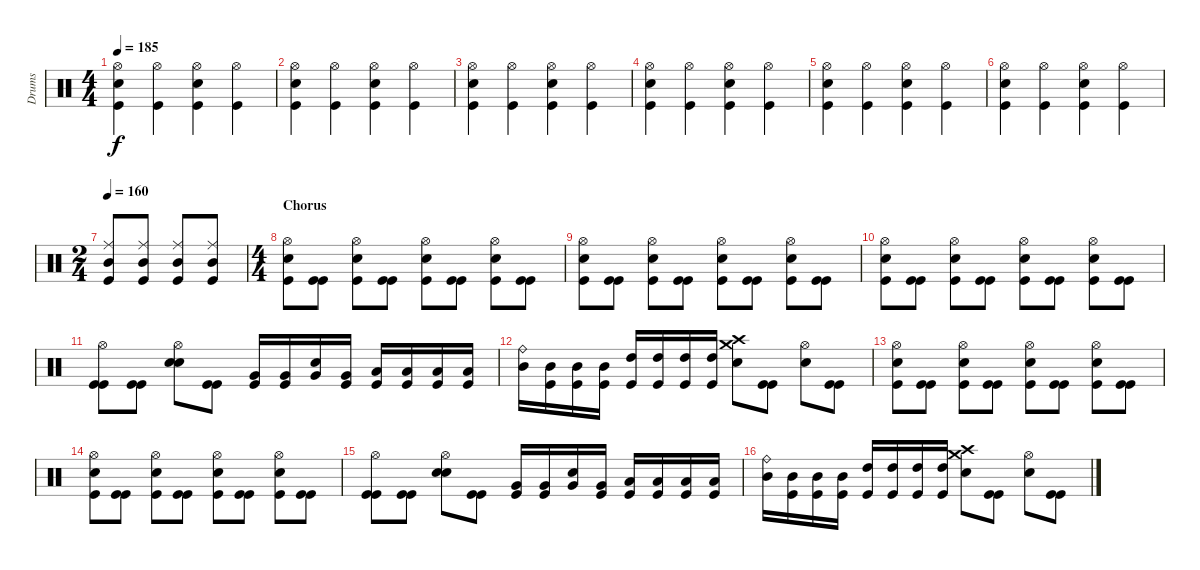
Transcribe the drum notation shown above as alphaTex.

\track ("Drums" "Drums") {instrument percussion}
\staff {score}
\articulation defaults
\ts (4 4)
\tempo 185
\clef neutral
\ks c
("Hi-Hat (open)" "Kick (hit)" "Snare (hit) 2").4{dy f} ("Hi-Hat (open)" "Kick (hit)").4 ("Hi-Hat (open)" "Kick (hit)" "Snare (hit) 2").4 ("Hi-Hat (open)" "Kick (hit)").4 |
("Hi-Hat (open)" "Kick (hit)" "Snare (hit) 2").4 ("Hi-Hat (open)" "Kick (hit)").4 ("Hi-Hat (open)" "Kick (hit)" "Snare (hit) 2").4 ("Hi-Hat (open)" "Kick (hit)").4 |
("Hi-Hat (open)" "Kick (hit)" "Snare (hit) 2").4 ("Hi-Hat (open)" "Kick (hit)").4 ("Hi-Hat (open)" "Kick (hit)" "Snare (hit) 2").4 ("Hi-Hat (open)" "Kick (hit)").4 |
("Hi-Hat (open)" "Kick (hit)" "Snare (hit) 2").4 ("Hi-Hat (open)" "Kick (hit)").4 ("Hi-Hat (open)" "Kick (hit)" "Snare (hit) 2").4 ("Hi-Hat (open)" "Kick (hit)").4 |
("Hi-Hat (open)" "Kick (hit)" "Snare (hit) 2").4 ("Hi-Hat (open)" "Kick (hit)").4 ("Hi-Hat (open)" "Kick (hit)" "Snare (hit) 2").4 ("Hi-Hat (open)" "Kick (hit)").4 |
("Hi-Hat (open)" "Kick (hit)" "Snare (hit) 2").4 ("Hi-Hat (open)" "Kick (hit)").4 ("Hi-Hat (open)" "Kick (hit)" "Snare (hit) 2").4 ("Hi-Hat (open)" "Kick (hit)").4 |
\ts (2 4)
\tempo 160
("Ride (middle)" "Mid Tom (hit)" "Kick (hit)").8 ("Ride (middle)" "Mid Tom (hit)" "Kick (hit)").8 ("Ride (middle)" "Mid Tom (hit)" "Kick (hit)").8 ("Ride (middle)" "Mid Tom (hit)" "Kick (hit)").8 |
\ts (4 4)
\section ("" "Chorus")
("Hi-Hat (open)" "Kick (hit)" "Snare (hit) 2").8 ("Kick (hit)" "Kick (hit)").8 ("Hi-Hat (open)" "Snare (hit) 2" "Kick (hit)").8 ("Kick (hit)" "Kick (hit)").8 ("Hi-Hat (open)" "Kick (hit)" "Snare (hit) 2").8 ("Kick (hit)" "Kick (hit)").8 ("Hi-Hat (open)" "Snare (hit) 2" "Kick (hit)").8 ("Kick (hit)" "Kick (hit)").8 |
("Hi-Hat (open)" "Kick (hit)" "Snare (hit) 2").8 ("Kick (hit)" "Kick (hit)").8 ("Hi-Hat (open)" "Snare (hit) 2" "Kick (hit)").8 ("Kick (hit)" "Kick (hit)").8 ("Hi-Hat (open)" "Kick (hit)" "Snare (hit) 2").8 ("Kick (hit)" "Kick (hit)").8 ("Hi-Hat (open)" "Snare (hit) 2" "Kick (hit)").8 ("Kick (hit)" "Kick (hit)").8 |
("Hi-Hat (open)" "Kick (hit)" "Snare (hit) 2").8 ("Kick (hit)" "Kick (hit)").8 ("Hi-Hat (open)" "Snare (hit) 2" "Kick (hit)").8 ("Kick (hit)" "Kick (hit)").8 ("Hi-Hat (open)" "Kick (hit)" "Snare (hit) 2").8 ("Kick (hit)" "Kick (hit)").8 ("Hi-Hat (open)" "Snare (hit) 2" "Kick (hit)").8 ("Kick (hit)" "Kick (hit)").8 |
("Hi-Hat (open)" "Kick (hit)" "Kick (hit)").8 ("Kick (hit)" "Kick (hit)").8 ("Hi-Hat (open)" "Snare (hit) 2" "Snare (hit) 2").8 ("Kick (hit)" "Kick (hit)").8 ("Very Low Tom (hit)" "Kick (hit)").16 ("Very Low Tom (hit)" "Kick (hit)").16 ("Very Low Tom (hit)" "Snare (hit) 2").16 ("Very Low Tom (hit)" "Kick (hit)").16 ("Low Tom (hit)" "Kick (hit)").16 ("Low Tom (hit)" "Kick (hit)").16 ("Low Tom (hit)" "Kick (hit)").16 ("Low Tom (hit)" "Kick (hit)").16 |
("Mid Tom (hit)" "Ride (bell)").16 ("Mid Tom (hit)" "Kick (hit)").16 ("Mid Tom (hit)" "Kick (hit)").16 ("Mid Tom (hit)" "Kick (hit)").16 ("High Tom (hit)" "Kick (hit)").16 ("High Tom (hit)" "Kick (hit)").16 ("High Tom (hit)" "Kick (hit)").16 ("High Tom (hit)" "Kick (hit)").16 ("Crash high (hit)" "Snare (hit) 2" "Crash medium (hit)").8 ("Kick (hit)" "Kick (hit)").8 ("Hi-Hat (open)" "Snare (hit) 2").8 ("Kick (hit)" "Kick (hit)").8 |
("Hi-Hat (open)" "Kick (hit)" "Snare (hit) 2").8 ("Kick (hit)" "Kick (hit)").8 ("Hi-Hat (open)" "Snare (hit) 2" "Kick (hit)").8 ("Kick (hit)" "Kick (hit)").8 ("Hi-Hat (open)" "Kick (hit)" "Snare (hit) 2").8 ("Kick (hit)" "Kick (hit)").8 ("Hi-Hat (open)" "Snare (hit) 2" "Kick (hit)").8 ("Kick (hit)" "Kick (hit)").8 |
("Hi-Hat (open)" "Kick (hit)" "Snare (hit) 2").8 ("Kick (hit)" "Kick (hit)").8 ("Hi-Hat (open)" "Snare (hit) 2" "Kick (hit)").8 ("Kick (hit)" "Kick (hit)").8 ("Hi-Hat (open)" "Kick (hit)" "Snare (hit) 2").8 ("Kick (hit)" "Kick (hit)").8 ("Hi-Hat (open)" "Snare (hit) 2" "Kick (hit)").8 ("Kick (hit)" "Kick (hit)").8 |
("Hi-Hat (open)" "Kick (hit)" "Kick (hit)").8 ("Kick (hit)" "Kick (hit)").8 ("Hi-Hat (open)" "Snare (hit) 2" "Snare (hit) 2").8 ("Kick (hit)" "Kick (hit)").8 ("Very Low Tom (hit)" "Kick (hit)").16 ("Very Low Tom (hit)" "Kick (hit)").16 ("Very Low Tom (hit)" "Snare (hit) 2").16 ("Very Low Tom (hit)" "Kick (hit)").16 ("Low Tom (hit)" "Kick (hit)").16 ("Low Tom (hit)" "Kick (hit)").16 ("Low Tom (hit)" "Kick (hit)").16 ("Low Tom (hit)" "Kick (hit)").16 |
("Mid Tom (hit)" "Ride (bell)").16 ("Mid Tom (hit)" "Kick (hit)").16 ("Mid Tom (hit)" "Kick (hit)").16 ("Mid Tom (hit)" "Kick (hit)").16 ("High Tom (hit)" "Kick (hit)").16 ("High Tom (hit)" "Kick (hit)").16 ("High Tom (hit)" "Kick (hit)").16 ("High Tom (hit)" "Kick (hit)").16 ("Crash high (hit)" "Snare (hit) 2" "Crash medium (hit)").8 ("Kick (hit)" "Kick (hit)").8 ("Hi-Hat (open)" "Snare (hit) 2").8 ("Kick (hit)" "Kick (hit)").8
